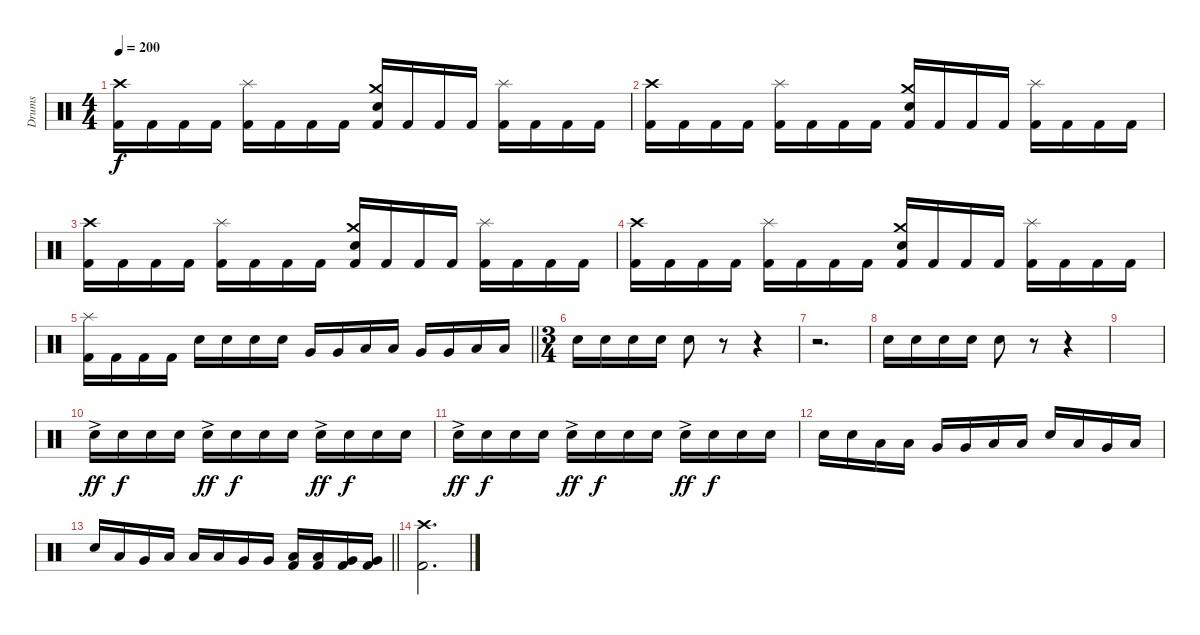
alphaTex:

\track ("Drums" "Drums") {instrument percussion}
\staff {score}
\articulation defaults
\ts (4 4)
\tempo 200
\clef neutral
\ks c
("Crash high (hit)" "Kick (hit) 2").16{dy f} "Kick (hit) 2".16 "Kick (hit) 2".16 "Kick (hit) 2".16 ("Splash (hit)" "Kick (hit) 2").16 "Kick (hit) 2".16 "Kick (hit) 2".16 "Kick (hit) 2".16 ("Crash medium (hit)" "Electric Snare (hit)" "Kick (hit) 2").16 "Kick (hit) 2".16 "Kick (hit) 2".16 "Kick (hit) 2".16 ("Splash (hit)" "Kick (hit) 2").16 "Kick (hit) 2".16 "Kick (hit) 2".16 "Kick (hit) 2".16 |
("Crash high (hit)" "Kick (hit) 2").16 "Kick (hit) 2".16 "Kick (hit) 2".16 "Kick (hit) 2".16 ("Splash (hit)" "Kick (hit) 2").16 "Kick (hit) 2".16 "Kick (hit) 2".16 "Kick (hit) 2".16 ("Crash medium (hit)" "Electric Snare (hit)" "Kick (hit) 2").16 "Kick (hit) 2".16 "Kick (hit) 2".16 "Kick (hit) 2".16 ("Splash (hit)" "Kick (hit) 2").16 "Kick (hit) 2".16 "Kick (hit) 2".16 "Kick (hit) 2".16 |
("Crash high (hit)" "Kick (hit) 2").16 "Kick (hit) 2".16 "Kick (hit) 2".16 "Kick (hit) 2".16 ("Splash (hit)" "Kick (hit) 2").16 "Kick (hit) 2".16 "Kick (hit) 2".16 "Kick (hit) 2".16 ("Crash medium (hit)" "Electric Snare (hit)" "Kick (hit) 2").16 "Kick (hit) 2".16 "Kick (hit) 2".16 "Kick (hit) 2".16 ("Splash (hit)" "Kick (hit) 2").16 "Kick (hit) 2".16 "Kick (hit) 2".16 "Kick (hit) 2".16 |
("Crash high (hit)" "Kick (hit) 2").16 "Kick (hit) 2".16 "Kick (hit) 2".16 "Kick (hit) 2".16 ("Splash (hit)" "Kick (hit) 2").16 "Kick (hit) 2".16 "Kick (hit) 2".16 "Kick (hit) 2".16 ("Crash medium (hit)" "Electric Snare (hit)" "Kick (hit) 2").16 "Kick (hit) 2".16 "Kick (hit) 2".16 "Kick (hit) 2".16 ("Splash (hit)" "Kick (hit) 2").16 "Kick (hit) 2".16 "Kick (hit) 2".16 "Kick (hit) 2".16 |
\barLineRight lightlight
("Splash (hit)" "Kick (hit) 2").16 "Kick (hit) 2".16 "Kick (hit) 2".16 "Kick (hit) 2".16 "Electric Snare (hit)".16 "Electric Snare (hit)".16 "Electric Snare (hit)".16 "Electric Snare (hit)".16 "Very Low Tom (hit)".16 "Very Low Tom (hit)".16 "Low Tom (hit)".16 "Low Tom (hit)".16 "Very Low Tom (hit)".16 "Very Low Tom (hit)".16 "Low Floor Tom (hit)".16 "Low Floor Tom (hit)".16 |
\ts (3 4)
"Electric Snare (hit)".16 "Electric Snare (hit)".16 "Electric Snare (hit)".16 "Electric Snare (hit)".16 "Electric Snare (hit)".8 r.8 r.4 |
r.2{d} |
"Electric Snare (hit)".16 "Electric Snare (hit)".16 "Electric Snare (hit)".16 "Electric Snare (hit)".16 "Electric Snare (hit)".8 r.8 r.4 |
|
"Electric Snare (hit)"{ac}.16{dy ff} "Electric Snare (hit)".16{dy f} "Electric Snare (hit)".16 "Electric Snare (hit)".16 "Electric Snare (hit)"{ac}.16{dy ff} "Electric Snare (hit)".16{dy f} "Electric Snare (hit)".16 "Electric Snare (hit)".16 "Electric Snare (hit)"{ac}.16{dy ff} "Electric Snare (hit)".16{dy f} "Electric Snare (hit)".16 "Electric Snare (hit)".16 |
"Electric Snare (hit)"{ac}.16{dy ff} "Electric Snare (hit)".16{dy f} "Electric Snare (hit)".16 "Electric Snare (hit)".16 "Electric Snare (hit)"{ac}.16{dy ff} "Electric Snare (hit)".16{dy f} "Electric Snare (hit)".16 "Electric Snare (hit)".16 "Electric Snare (hit)"{ac}.16{dy ff} "Electric Snare (hit)".16{dy f} "Electric Snare (hit)".16 "Electric Snare (hit)".16 |
"Electric Snare (hit)".16 "Electric Snare (hit)".16 "Low Tom (hit)".16 "Low Tom (hit)".16 "Very Low Tom (hit)".16 "Very Low Tom (hit)".16 "Low Floor Tom (hit)".16 "Low Floor Tom (hit)".16 "Electric Snare (hit)".16 "Low Floor Tom (hit)".16 "Very Low Tom (hit)".16 "Low Floor Tom (hit)".16 |
\barLineRight lightlight "Electric Snare (hit)".16 "Low Floor Tom (hit)".16 "Very Low Tom (hit)".16 "Low Floor Tom (hit)".16 "Low Floor Tom (hit)".16 "Low Floor Tom (hit)".16 "Very Low Tom (hit)".16 "Very Low Tom (hit)".16
("Low Tom (hit)" "Kick (hit) 2").16 ("Low Tom (hit)" "Kick (hit) 2").16 ("Very Low Tom (hit)" "Kick (hit) 2").16 ("Very Low Tom (hit)" "Kick (hit) 2").16 |
("Crash high (hit)" "Kick (hit) 2").2{d}
